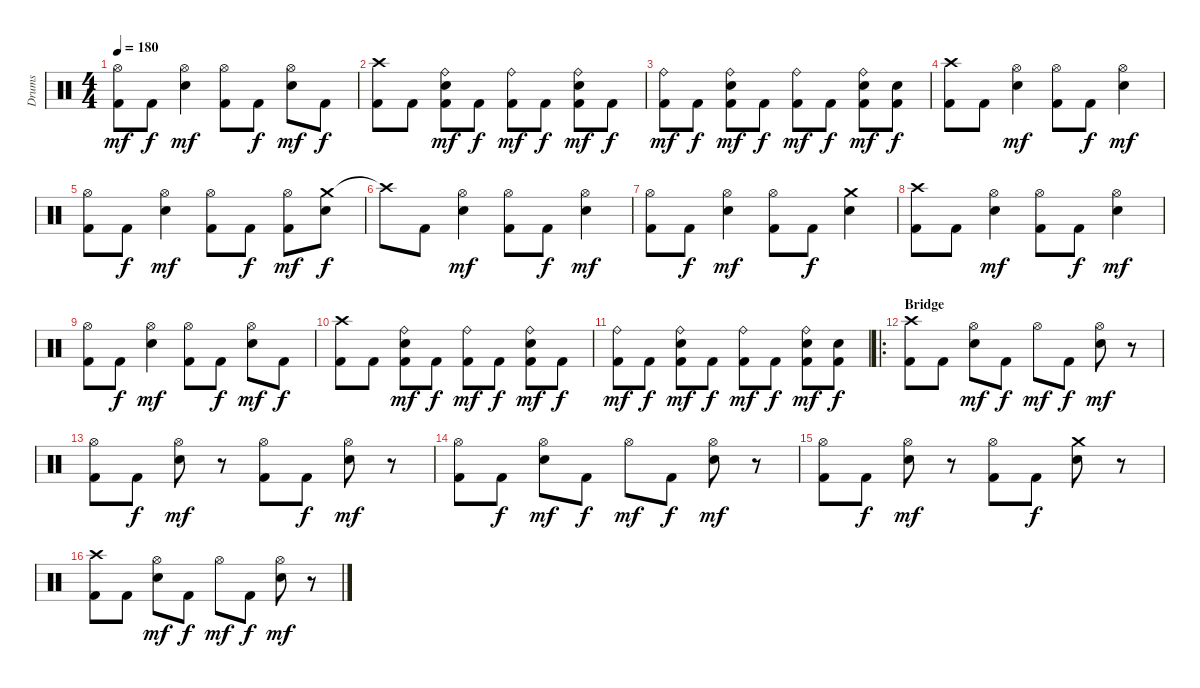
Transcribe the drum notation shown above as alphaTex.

\track ("Drums" "Drums") {instrument percussion}
\staff {score}
\articulation defaults
\ts (4 4)
\tempo 180
\clef neutral
\ks c
("Hi-Hat (open)" "Kick (hit) 2").8{dy mf} "Kick (hit) 2".8{dy f} ("Hi-Hat (open)" "Snare (hit) 2").4{dy mf} ("Hi-Hat (open)" "Kick (hit) 2").8 "Kick (hit) 2".8{dy f} ("Hi-Hat (open)" "Snare (hit) 2").8{dy mf} "Kick (hit) 2".8{dy f} |
("Crash high (hit)" "Kick (hit) 2").8 "Kick (hit) 2".8 ("Ride (bell)" "Snare (hit) 2" "Kick (hit) 2").8{dy mf} "Kick (hit) 2".8{dy f} ("Ride (bell)" "Kick (hit) 2").8{dy mf} "Kick (hit) 2".8{dy f} ("Ride (bell)" "Snare (hit) 2" "Kick (hit) 2").8{dy mf} "Kick (hit) 2".8{dy f} |
("Ride (bell)" "Kick (hit) 2").8{dy mf} "Kick (hit) 2".8{dy f} ("Ride (bell)" "Snare (hit) 2" "Kick (hit) 2").8{dy mf} "Kick (hit) 2".8{dy f} ("Ride (bell)" "Kick (hit) 2").8{dy mf} "Kick (hit) 2".8{dy f} ("Ride (bell)" "Snare (hit) 2" "Kick (hit) 2").8{dy mf} ("Snare (hit) 2" "Kick (hit) 2").8{dy f} |
("Crash high (hit)" "Kick (hit) 2").8 "Kick (hit) 2".8 ("Hi-Hat (open)" "Snare (hit) 2").4{dy mf} ("Hi-Hat (open)" "Kick (hit) 2").8 "Kick (hit) 2".8{dy f} ("Hi-Hat (open)" "Snare (hit) 2").4{dy mf} |
("Hi-Hat (open)" "Kick (hit) 2").8 "Kick (hit) 2".8{dy f} ("Hi-Hat (open)" "Snare (hit) 2").4{dy mf} ("Hi-Hat (open)" "Kick (hit) 2").8 "Kick (hit) 2".8{dy f} ("Hi-Hat (open)" "Kick (hit) 2").8{dy mf} ("Crash medium (hit)" "Snare (hit) 2").8{dy f} |
"Crash high (hit)"{t}.8 "Kick (hit) 2".8 ("Hi-Hat (open)" "Snare (hit) 2").4{dy mf} ("Hi-Hat (open)" "Kick (hit) 2").8 "Kick (hit) 2".8{dy f} ("Hi-Hat (open)" "Snare (hit) 2").4{dy mf} |
("Hi-Hat (open)" "Kick (hit) 2").8 "Kick (hit) 2".8{dy f} ("Hi-Hat (open)" "Snare (hit) 2").4{dy mf} ("Hi-Hat (open)" "Kick (hit) 2").8 "Kick (hit) 2".8{dy f} ("Crash medium (hit)" "Snare (hit) 2").4 |
("Crash high (hit)" "Kick (hit) 2").8 "Kick (hit) 2".8 ("Hi-Hat (open)" "Snare (hit) 2").4{dy mf} ("Hi-Hat (open)" "Kick (hit) 2").8 "Kick (hit) 2".8{dy f} ("Hi-Hat (open)" "Snare (hit) 2").4{dy mf} |
("Hi-Hat (open)" "Kick (hit) 2").8 "Kick (hit) 2".8{dy f} ("Hi-Hat (open)" "Snare (hit) 2").4{dy mf} ("Hi-Hat (open)" "Kick (hit) 2").8 "Kick (hit) 2".8{dy f} ("Hi-Hat (open)" "Snare (hit) 2").8{dy mf} "Kick (hit) 2".8{dy f} |
("Crash high (hit)" "Kick (hit) 2").8 "Kick (hit) 2".8 ("Ride (bell)" "Snare (hit) 2" "Kick (hit) 2").8{dy mf} "Kick (hit) 2".8{dy f} ("Ride (bell)" "Kick (hit) 2").8{dy mf} "Kick (hit) 2".8{dy f} ("Ride (bell)" "Snare (hit) 2" "Kick (hit) 2").8{dy mf} "Kick (hit) 2".8{dy f} |
("Ride (bell)" "Kick (hit) 2").8{dy mf} "Kick (hit) 2".8{dy f} ("Ride (bell)" "Snare (hit) 2" "Kick (hit) 2").8{dy mf} "Kick (hit) 2".8{dy f} ("Ride (bell)" "Kick (hit) 2").8{dy mf} "Kick (hit) 2".8{dy f} ("Ride (bell)" "Snare (hit) 2" "Kick (hit) 2").8{dy mf} ("Snare (hit) 2" "Kick (hit) 2").8{dy f} |
\ro
\section ("" "Bridge")
("Crash high (hit)" "Kick (hit) 2").8 "Kick (hit) 2".8 ("Hi-Hat (open)" "Snare (hit) 2").8{dy mf} "Kick (hit) 2".8{dy f} "Hi-Hat (open)".8{dy mf} "Kick (hit) 2".8{dy f} ("Hi-Hat (open)" "Snare (hit) 2").8{dy mf} r.8 |
("Hi-Hat (open)" "Kick (hit) 2").8 "Kick (hit) 2".8{dy f} ("Hi-Hat (open)" "Snare (hit) 2").8{dy mf} r.8 ("Hi-Hat (open)" "Kick (hit) 2").8 "Kick (hit) 2".8{dy f} ("Hi-Hat (open)" "Snare (hit) 2").8{dy mf} r.8 |
("Hi-Hat (open)" "Kick (hit) 2").8 "Kick (hit) 2".8{dy f} ("Hi-Hat (open)" "Snare (hit) 2").8{dy mf} "Kick (hit) 2".8{dy f} "Hi-Hat (open)".8{dy mf} "Kick (hit) 2".8{dy f} ("Hi-Hat (open)" "Snare (hit) 2").8{dy mf} r.8 |
("Hi-Hat (open)" "Kick (hit) 2").8 "Kick (hit) 2".8{dy f} ("Hi-Hat (open)" "Snare (hit) 2").8{dy mf} r.8 ("Hi-Hat (open)" "Kick (hit) 2").8 "Kick (hit) 2".8{dy f} ("Crash medium (hit)" "Snare (hit) 2").8 r.8 |
("Crash high (hit)" "Kick (hit) 2").8 "Kick (hit) 2".8 ("Hi-Hat (open)" "Snare (hit) 2").8{dy mf} "Kick (hit) 2".8{dy f} "Hi-Hat (open)".8{dy mf} "Kick (hit) 2".8{dy f} ("Hi-Hat (open)" "Snare (hit) 2").8{dy mf} r.8
